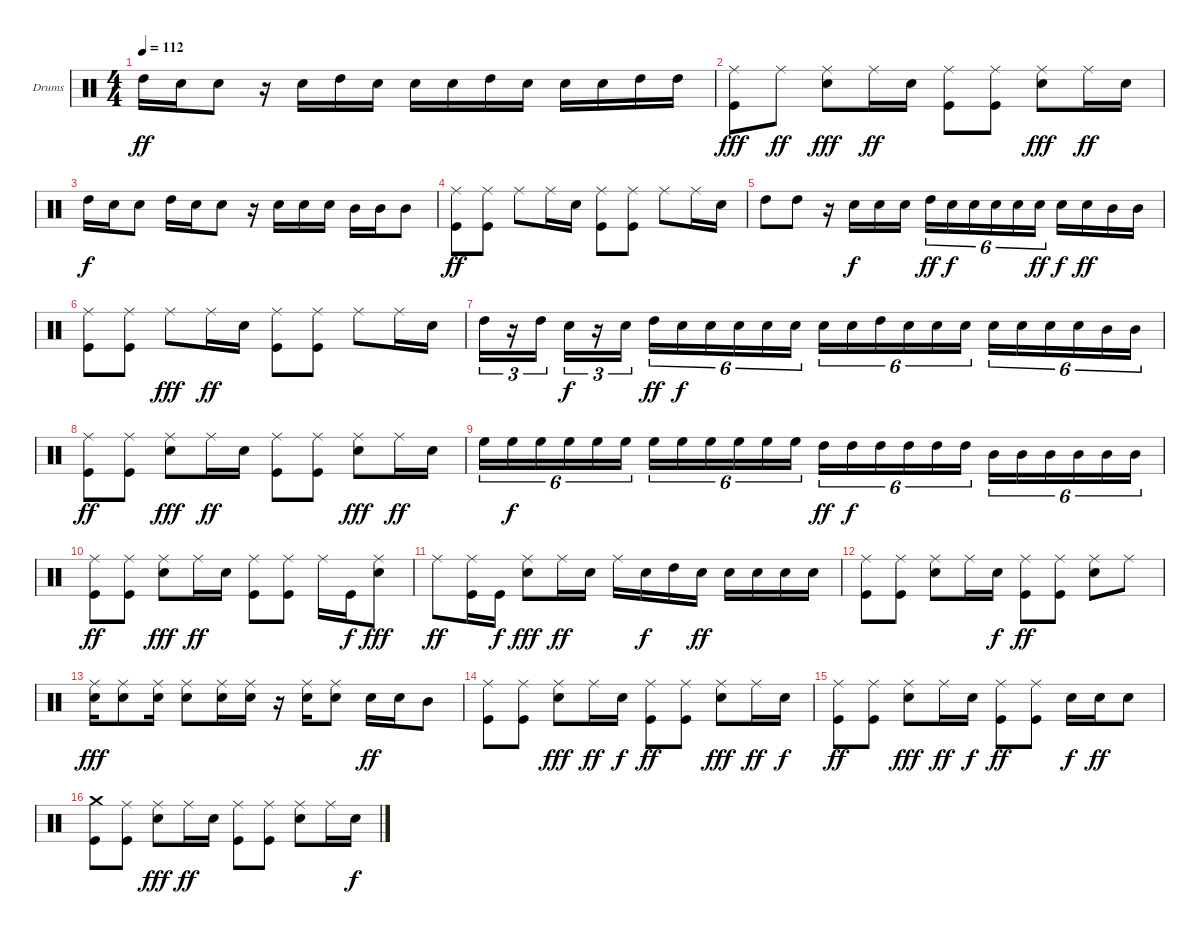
\bracketExtendMode groupsimilarinstruments
\firstSystemTrackNameOrientation horizontal
\otherSystemsTrackNameOrientation horizontal
\track ("Drumkit" "Drums") {instrument percussion}
\staff {score}
\articulation defaults
\ts (4 4)
\tempo 112
\clef neutral
\ks c "High Tom (hit)".16{dy ff} "Snare (hit) 2".16 "Snare (hit) 2".8
r.16 "Snare (hit) 2".16 "High Tom (hit)".16 "Snare (hit) 2".16 "Snare (hit) 2".16 "Snare (hit) 2".16 "High Tom (hit)".16 "Snare (hit) 2".16 "Snare (hit) 2".16 "Snare (hit) 2".16 "High Tom (hit)".16 "High Tom (hit)".16 |
("Ride (middle)" "Kick (hit)").8{dy fff} "Ride (middle)".8{dy ff} ("Ride (middle)" "Snare (hit) 2").8{dy fff} "Ride (middle)".16{dy ff} "Snare (hit) 2".16 ("Ride (middle)" "Kick (hit)").8 ("Ride (middle)" "Kick (hit)").8 ("Ride (middle)" "Snare (hit) 2").8{dy fff} "Ride (middle)".16{dy ff} "Snare (hit) 2".16 |
"High Tom (hit)".16{dy f} "Snare (hit) 2".16 "Snare (hit) 2".8 "High Tom (hit)".16 "Snare (hit) 2".16 "Snare (hit) 2".8 r.16 "Snare (hit) 2".16 "Snare (hit) 2".16 "Snare (hit) 2".16 "Mid Tom (hit)".16 "Mid Tom (hit)".16 "Mid Tom (hit)".8 |
("Ride (middle)" "Kick (hit)").8{dy ff} ("Ride (middle)" "Kick (hit)").8 "Ride (middle)".8 "Ride (middle)".16 "Snare (hit) 2".16 ("Ride (middle)" "Kick (hit)").8 ("Ride (middle)" "Kick (hit)").8 "Ride (middle)".8 "Ride (middle)".16 "Snare (hit) 2".16 |
"High Tom (hit)".8 "High Tom (hit)".8 r.16 "Snare (hit) 2".16{dy f} "Snare (hit) 2".16 "Snare (hit) 2".16 "High Tom (hit)".16{tu (6 4) dy ff} "Snare (hit) 2".16{tu (6 4) dy f} "Snare (hit) 2".16{tu (6 4)} "Snare (hit) 2".16{tu (6 4)} "Snare (hit) 2".16{tu (6 4)} "Snare (hit) 2".16{tu (6 4) dy ff} "Snare (hit) 2".16{dy f} "Snare (hit) 2".16{dy ff} "Mid Tom (hit)".16 "Mid Tom (hit)".16 |
("Ride (middle)" "Kick (hit)").8 ("Ride (middle)" "Kick (hit)").8 "Ride (middle)".8{dy fff} "Ride (middle)".16{dy ff} "Snare (hit) 2".16 ("Ride (middle)" "Kick (hit)").8 ("Ride (middle)" "Kick (hit)").8 "Ride (middle)".8 "Ride (middle)".16 "Snare (hit) 2".16 |
"High Tom (hit)".16{tu (3 2)} r.16{tu (3 2)} "High Tom (hit)".16{tu (3 2)} "Snare (hit) 2".16{tu (3 2) dy f} r.16{tu (3 2)} "Snare (hit) 2".16{tu (3 2)} "High Tom (hit)".16{tu (6 4) dy ff} "Snare (hit) 2".16{tu (6 4) dy f} "Snare (hit) 2".16{tu (6 4)} "Snare (hit) 2".16{tu (6 4)} "Snare (hit) 2".16{tu (6 4)} "Snare (hit) 2".16{tu (6 4)} "Snare (hit) 2".16{tu (6 4)} "Snare (hit) 2".16{tu (6 4)} "High Tom (hit)".16{tu (6 4)} "Snare (hit) 2".16{tu (6 4)} "Snare (hit) 2".16{tu (6 4)} "Snare (hit) 2".16{tu (6 4)} "Snare (hit) 2".16{tu (6 4)} "Snare (hit) 2".16{tu (6 4)} "Snare (hit) 2".16{tu (6 4)} "Snare (hit) 2".16{tu (6 4)} "Mid Tom (hit)".16{tu (6 4)} "Mid Tom (hit)".16{tu (6 4)} |
("Ride (middle)" "Kick (hit)").8{dy ff} ("Ride (middle)" "Kick (hit)").8 ("Ride (middle)" "Snare (hit) 2").8{dy fff} "Ride (middle)".16{dy ff} "Snare (hit) 2".16 ("Ride (middle)" "Kick (hit)").8 ("Ride (middle)" "Kick (hit)").8 ("Ride (middle)" "Snare (hit) 2").8{dy fff} "Ride (middle)".16{dy ff} "Snare (hit) 2".16 |
"High Floor Tom (hit)".16{tu (6 4)} "High Floor Tom (hit)".16{tu (6 4) dy f} "High Floor Tom (hit)".16{tu (6 4)} "High Floor Tom (hit)".16{tu (6 4)} "High Floor Tom (hit)".16{tu (6 4)} "High Floor Tom (hit)".16{tu (6 4)} "High Floor Tom (hit)".16{tu (6 4)} "High Floor Tom (hit)".16{tu (6 4)} "High Floor Tom (hit)".16{tu (6 4)} "High Floor Tom (hit)".16{tu (6 4)} "High Floor Tom (hit)".16{tu (6 4)} "High Floor Tom (hit)".16{tu (6 4)} "High Tom (hit)".16{tu (6 4) dy ff} "High Tom (hit)".16{tu (6 4) dy f} "High Tom (hit)".16{tu (6 4)} "High Tom (hit)".16{tu (6 4)} "High Tom (hit)".16{tu (6 4)} "High Tom (hit)".16{tu (6 4)} "Mid Tom (hit)".16{tu (6 4)} "Mid Tom (hit)".16{tu (6 4)} "Mid Tom (hit)".16{tu (6 4)} "Mid Tom (hit)".16{tu (6 4)} "Mid Tom (hit)".16{tu (6 4)} "Mid Tom (hit)".16{tu (6 4)} |
("Ride (middle)" "Kick (hit)").8{dy ff} ("Ride (middle)" "Kick (hit)").8 ("Ride (middle)" "Snare (hit) 2").8{dy fff} "Ride (middle)".16{dy ff} "Snare (hit) 2".16 ("Ride (middle)" "Kick (hit)").8 ("Ride (middle)" "Kick (hit)").8 "Ride (middle)".16 "Kick (hit)".16{dy f} ("Ride (middle)" "Snare (hit) 2").8{dy fff} |
"Ride (middle)".8{dy ff} ("Ride (middle)" "Kick (hit)").16 "Kick (hit)".16{dy f} ("Ride (middle)" "Snare (hit) 2").8{dy fff} "Ride (middle)".16{dy ff} "Snare (hit) 2".16 "Ride (middle)".16 "Snare (hit) 2".16{dy f} "High Tom (hit)".16 "Snare (hit) 2".16{dy ff} "Snare (hit) 2".16 "Snare (hit) 2".16 "Snare (hit) 2".16 "Snare (hit) 2".16 |
("Ride (middle)" "Kick (hit)").8 ("Ride (middle)" "Kick (hit)").8 ("Ride (middle)" "Snare (hit) 2").8 "Ride (middle)".16 "Snare (hit) 2".16{dy f} ("Ride (middle)" "Kick (hit)").8{dy ff} ("Ride (middle)" "Kick (hit)").8 ("Ride (middle)" "Snare (hit) 2").8 "Ride (middle)".8 |
("Ride (middle)" "Snare (hit) 2").16{dy fff} ("Ride (middle)" "Snare (hit) 2").8 ("Ride (middle)" "Snare (hit) 2").16 ("Ride (middle)" "Snare (hit) 2").8 ("Ride (middle)" "Snare (hit) 2").16 ("Ride (middle)" "Snare (hit) 2").16 r.16 ("Ride (middle)" "Snare (hit) 2").16 ("Ride (middle)" "Snare (hit) 2").8 "Snare (hit) 2".16{dy ff} "Snare (hit) 2".16 "Mid Tom (hit)".8 |
("Ride (middle)" "Kick (hit)").8 ("Ride (middle)" "Kick (hit)").8 ("Ride (middle)" "Snare (hit) 2").8{dy fff} "Ride (middle)".16{dy ff} "Snare (hit) 2".16{dy f} ("Ride (middle)" "Kick (hit)").8{dy ff} ("Ride (middle)" "Kick (hit)").8 ("Ride (middle)" "Snare (hit) 2").8{dy fff} "Ride (middle)".16{dy ff} "Snare (hit) 2".16{dy f} |
("Ride (middle)" "Kick (hit)").8{dy ff} ("Ride (middle)" "Kick (hit)").8 ("Ride (middle)" "Snare (hit) 2").8{dy fff} "Ride (middle)".16{dy ff} "Snare (hit) 2".16{dy f} ("Ride (middle)" "Kick (hit)").8{dy ff} ("Ride (middle)" "Kick (hit)").8 "Snare (hit) 2".16{dy f} "Snare (hit) 2".16{dy ff} "Snare (hit) 2".8 |
("Crash medium (hit)" "Kick (hit)").8 ("Ride (middle)" "Kick (hit)").8 ("Ride (middle)" "Snare (hit) 2").8{dy fff} "Ride (middle)".16{dy ff} "Snare (hit) 2".16 ("Ride (middle)" "Kick (hit)").8 ("Ride (middle)" "Kick (hit)").8 ("Ride (middle)" "Snare (hit) 2").8 "Ride (middle)".16 "Snare (hit) 2".16{dy f}
